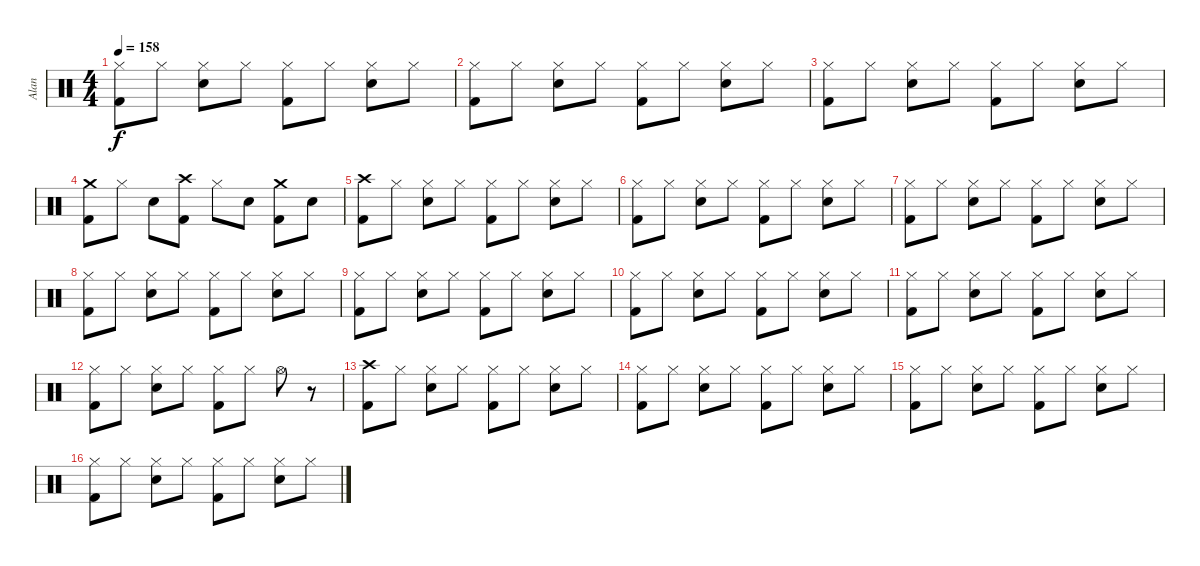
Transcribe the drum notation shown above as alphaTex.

\track ("Alan" "Alan") {instrument percussion}
\staff {score}
\articulation defaults
\ts (4 4)
\tempo 158
\clef neutral
\ks c
("Kick (hit) 2" "Hi-Hat (closed)").8{dy f} "Hi-Hat (closed)".8 ("Hi-Hat (closed)" "Electric Snare (hit)").8 "Hi-Hat (closed)".8 ("Kick (hit) 2" "Hi-Hat (closed)").8 "Hi-Hat (closed)".8 ("Hi-Hat (closed)" "Electric Snare (hit)").8 "Hi-Hat (closed)".8 |
("Kick (hit) 2" "Hi-Hat (closed)").8 "Hi-Hat (closed)".8 ("Hi-Hat (closed)" "Electric Snare (hit)").8 "Hi-Hat (closed)".8 ("Kick (hit) 2" "Hi-Hat (closed)").8 "Hi-Hat (closed)".8 ("Hi-Hat (closed)" "Electric Snare (hit)").8 "Hi-Hat (closed)".8 |
("Kick (hit) 2" "Hi-Hat (closed)").8 "Hi-Hat (closed)".8 ("Hi-Hat (closed)" "Electric Snare (hit)").8 "Hi-Hat (closed)".8 ("Kick (hit) 2" "Hi-Hat (closed)").8 "Hi-Hat (closed)".8 ("Hi-Hat (closed)" "Electric Snare (hit)").8 "Hi-Hat (closed)".8 |
("Kick (hit) 2" "Crash medium (hit)").8 "Hi-Hat (closed)".8 "Electric Snare (hit)".8 ("Kick (hit) 2" "Crash high (hit)").8 "Hi-Hat (closed)".8 "Electric Snare (hit)".8 ("Kick (hit) 2" "Crash medium (hit)").8 "Electric Snare (hit)".8 |
("Kick (hit) 2" "Crash high (hit)").8 "Hi-Hat (closed)".8 ("Hi-Hat (closed)" "Electric Snare (hit)").8 "Hi-Hat (closed)".8 ("Kick (hit) 2" "Hi-Hat (closed)").8 "Hi-Hat (closed)".8 ("Hi-Hat (closed)" "Electric Snare (hit)").8 "Hi-Hat (closed)".8 |
("Kick (hit) 2" "Hi-Hat (closed)").8 "Hi-Hat (closed)".8 ("Hi-Hat (closed)" "Electric Snare (hit)").8 "Hi-Hat (closed)".8 ("Kick (hit) 2" "Hi-Hat (closed)").8 "Hi-Hat (closed)".8 ("Hi-Hat (closed)" "Electric Snare (hit)").8 "Hi-Hat (closed)".8 |
("Kick (hit) 2" "Hi-Hat (closed)").8 "Hi-Hat (closed)".8 ("Hi-Hat (closed)" "Electric Snare (hit)").8 "Hi-Hat (closed)".8 ("Kick (hit) 2" "Hi-Hat (closed)").8 "Hi-Hat (closed)".8 ("Hi-Hat (closed)" "Electric Snare (hit)").8 "Hi-Hat (closed)".8 |
("Kick (hit) 2" "Hi-Hat (closed)").8 "Hi-Hat (closed)".8 ("Hi-Hat (closed)" "Electric Snare (hit)").8 "Hi-Hat (closed)".8 ("Kick (hit) 2" "Hi-Hat (closed)").8 "Hi-Hat (closed)".8 ("Hi-Hat (closed)" "Electric Snare (hit)").8 "Hi-Hat (closed)".8 |
("Kick (hit) 2" "Hi-Hat (closed)").8 "Hi-Hat (closed)".8 ("Hi-Hat (closed)" "Electric Snare (hit)").8 "Hi-Hat (closed)".8 ("Kick (hit) 2" "Hi-Hat (closed)").8 "Hi-Hat (closed)".8 ("Hi-Hat (closed)" "Electric Snare (hit)").8 "Hi-Hat (closed)".8 |
("Kick (hit) 2" "Hi-Hat (closed)").8 "Hi-Hat (closed)".8 ("Hi-Hat (closed)" "Electric Snare (hit)").8 "Hi-Hat (closed)".8 ("Kick (hit) 2" "Hi-Hat (closed)").8 "Hi-Hat (closed)".8 ("Hi-Hat (closed)" "Electric Snare (hit)").8 "Hi-Hat (closed)".8 |
("Kick (hit) 2" "Hi-Hat (closed)").8 "Hi-Hat (closed)".8 ("Hi-Hat (closed)" "Electric Snare (hit)").8 "Hi-Hat (closed)".8 ("Kick (hit) 2" "Hi-Hat (closed)").8 "Hi-Hat (closed)".8 ("Hi-Hat (closed)" "Electric Snare (hit)").8 "Hi-Hat (closed)".8 |
("Kick (hit) 2" "Hi-Hat (closed)").8 "Hi-Hat (closed)".8 ("Hi-Hat (closed)" "Electric Snare (hit)").8 "Hi-Hat (closed)".8 ("Kick (hit) 2" "Hi-Hat (closed)").8 "Hi-Hat (closed)".8 "Hi-Hat (open)".8 r.8 |
("Kick (hit) 2" "Crash high (hit)").8 "Hi-Hat (closed)".8 ("Hi-Hat (closed)" "Electric Snare (hit)").8 "Hi-Hat (closed)".8 ("Kick (hit) 2" "Hi-Hat (closed)").8 "Hi-Hat (closed)".8 ("Hi-Hat (closed)" "Electric Snare (hit)").8 "Hi-Hat (closed)".8 |
("Kick (hit) 2" "Hi-Hat (closed)").8 "Hi-Hat (closed)".8 ("Hi-Hat (closed)" "Electric Snare (hit)").8 "Hi-Hat (closed)".8 ("Kick (hit) 2" "Hi-Hat (closed)").8 "Hi-Hat (closed)".8 ("Hi-Hat (closed)" "Electric Snare (hit)").8 "Hi-Hat (closed)".8 |
("Kick (hit) 2" "Hi-Hat (closed)").8 "Hi-Hat (closed)".8 ("Hi-Hat (closed)" "Electric Snare (hit)").8 "Hi-Hat (closed)".8 ("Kick (hit) 2" "Hi-Hat (closed)").8 "Hi-Hat (closed)".8 ("Hi-Hat (closed)" "Electric Snare (hit)").8 "Hi-Hat (closed)".8 |
("Kick (hit) 2" "Hi-Hat (closed)").8 "Hi-Hat (closed)".8 ("Hi-Hat (closed)" "Electric Snare (hit)").8 "Hi-Hat (closed)".8 ("Kick (hit) 2" "Hi-Hat (closed)").8 "Hi-Hat (closed)".8 ("Hi-Hat (closed)" "Electric Snare (hit)").8 "Hi-Hat (closed)".8
